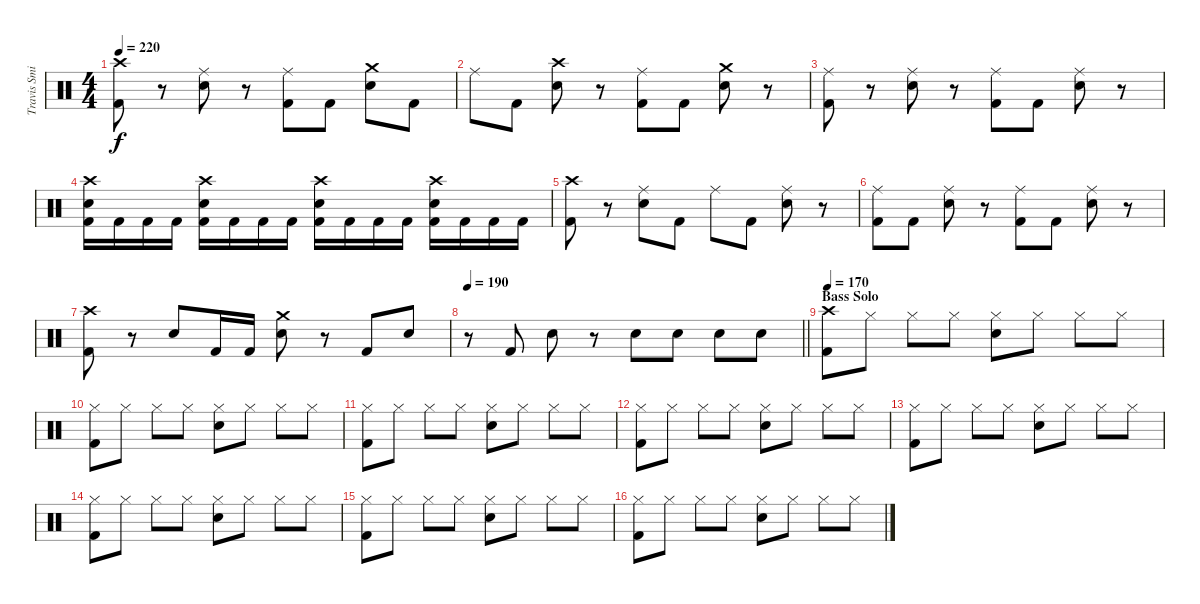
\track ("Travis Smith" "Travis Smi") {instrument percussion}
\staff {score}
\articulation defaults
\ts (4 4)
\tempo 220
\clef neutral
\ks c
("Crash high (hit)" "Kick (hit) 2").8{dy f} r.8 ("Ride (middle)" "Electric Snare (hit)").8 r.8 ("Ride (middle)" "Kick (hit) 2").8 "Kick (hit) 2".8 ("Crash medium (hit)" "Electric Snare (hit)").8 "Kick (hit) 2".8 |
"Ride (middle)".8 "Kick (hit) 2".8 ("Crash high (hit)" "Electric Snare (hit)").8 r.8 ("Ride (middle)" "Kick (hit) 2").8 "Kick (hit) 2".8 ("Crash medium (hit)" "Electric Snare (hit)").8 r.8 |
("Ride (middle)" "Kick (hit) 2").8 r.8 ("Ride (middle)" "Electric Snare (hit)").8 r.8 ("Ride (middle)" "Kick (hit) 2").8 "Kick (hit) 2".8 ("Ride (middle)" "Electric Snare (hit)").8 r.8 |
("Crash high (hit)" "Electric Snare (hit)" "Kick (hit) 2").16 "Kick (hit) 2".16 "Kick (hit) 2".16 "Kick (hit) 2".16 ("Crash high (hit)" "Electric Snare (hit)" "Kick (hit) 2").16 "Kick (hit) 2".16 "Kick (hit) 2".16 "Kick (hit) 2".16 ("Crash high (hit)" "Electric Snare (hit)" "Kick (hit) 2").16 "Kick (hit) 2".16 "Kick (hit) 2".16 "Kick (hit) 2".16 ("Crash high (hit)" "Electric Snare (hit)" "Kick (hit) 2").16 "Kick (hit) 2".16 "Kick (hit) 2".16 "Kick (hit) 2".16 |
("Crash high (hit)" "Kick (hit) 2").8 r.8 ("Ride (middle)" "Electric Snare (hit)").8 "Kick (hit) 2".8 "Ride (middle)".8 "Kick (hit) 2".8 ("Ride (middle)" "Electric Snare (hit)").8 r.8 |
("Ride (middle)" "Kick (hit) 2").8 "Kick (hit) 2".8 ("Ride (middle)" "Electric Snare (hit)").8 r.8 ("Ride (middle)" "Kick (hit) 2").8 "Kick (hit) 2".8 ("Ride (middle)" "Electric Snare (hit)").8 r.8 |
("Crash high (hit)" "Kick (hit) 2").8 r.8 "Electric Snare (hit)".8 "Kick (hit) 2".16 "Kick (hit) 2".16 ("Crash medium (hit)" "Electric Snare (hit)").8 r.8 "Kick (hit) 2".8 "Electric Snare (hit)".8 |
\tempo 190
\barLineRight lightlight
r.8 "Kick (hit) 2".8 "Electric Snare (hit)".8 r.8 "Electric Snare (hit)".8 "Electric Snare (hit)".8 "Electric Snare (hit)".8 "Electric Snare (hit)".8 |
\section ("" "Bass Solo")
\tempo 170
("Crash high (hit)" "Kick (hit) 2").8 "Hi-Hat (closed)".8 "Hi-Hat (closed)".8 "Hi-Hat (closed)".8 ("Hi-Hat (closed)" "Electric Snare (hit)").8 "Hi-Hat (closed)".8 "Hi-Hat (closed)".8 "Hi-Hat (closed)".8 |
("Hi-Hat (closed)" "Kick (hit) 2").8 "Hi-Hat (closed)".8 "Hi-Hat (closed)".8 "Hi-Hat (closed)".8 ("Hi-Hat (closed)" "Electric Snare (hit)").8 "Hi-Hat (closed)".8 "Hi-Hat (closed)".8 "Hi-Hat (closed)".8 |
("Hi-Hat (closed)" "Kick (hit) 2").8 "Hi-Hat (closed)".8 "Hi-Hat (closed)".8 "Hi-Hat (closed)".8 ("Hi-Hat (closed)" "Electric Snare (hit)").8 "Hi-Hat (closed)".8 "Hi-Hat (closed)".8 "Hi-Hat (closed)".8 |
("Hi-Hat (closed)" "Kick (hit) 2").8 "Hi-Hat (closed)".8 "Hi-Hat (closed)".8 "Hi-Hat (closed)".8 ("Hi-Hat (closed)" "Electric Snare (hit)").8 "Hi-Hat (closed)".8 "Hi-Hat (closed)".8 "Hi-Hat (closed)".8 |
("Hi-Hat (closed)" "Kick (hit) 2").8 "Hi-Hat (closed)".8 "Hi-Hat (closed)".8 "Hi-Hat (closed)".8 ("Hi-Hat (closed)" "Electric Snare (hit)").8 "Hi-Hat (closed)".8 "Hi-Hat (closed)".8 "Hi-Hat (closed)".8 |
("Hi-Hat (closed)" "Kick (hit) 2").8 "Hi-Hat (closed)".8 "Hi-Hat (closed)".8 "Hi-Hat (closed)".8 ("Hi-Hat (closed)" "Electric Snare (hit)").8 "Hi-Hat (closed)".8 "Hi-Hat (closed)".8 "Hi-Hat (closed)".8 |
("Hi-Hat (closed)" "Kick (hit) 2").8 "Hi-Hat (closed)".8 "Hi-Hat (closed)".8 "Hi-Hat (closed)".8 ("Hi-Hat (closed)" "Electric Snare (hit)").8 "Hi-Hat (closed)".8 "Hi-Hat (closed)".8 "Hi-Hat (closed)".8 |
("Hi-Hat (closed)" "Kick (hit) 2").8 "Hi-Hat (closed)".8 "Hi-Hat (closed)".8 "Hi-Hat (closed)".8 ("Hi-Hat (closed)" "Electric Snare (hit)").8 "Hi-Hat (closed)".8 "Hi-Hat (closed)".8 "Hi-Hat (closed)".8
